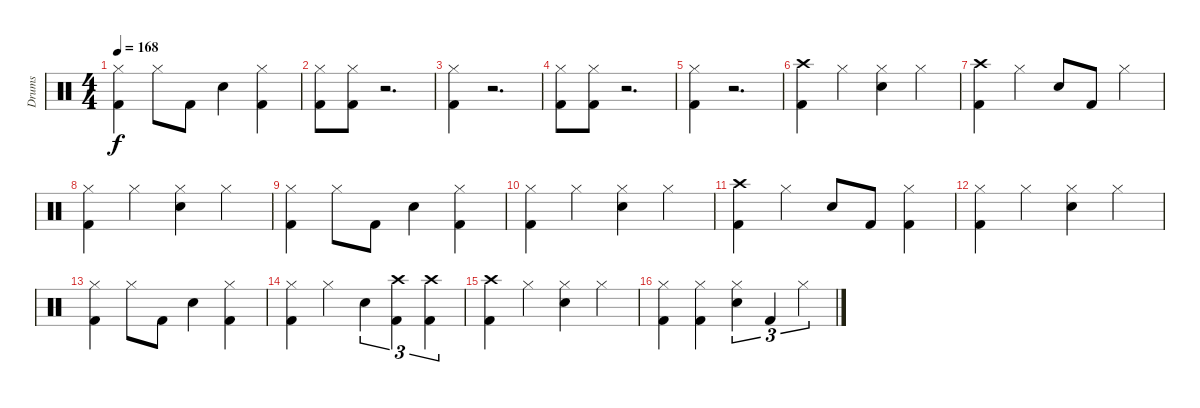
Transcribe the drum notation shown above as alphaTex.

\track ("Drums" "Drums") {instrument percussion}
\staff {score}
\articulation defaults
\ts (4 4)
\tempo 168
\clef neutral
\ks c
("Kick (hit) 2" "Hi-Hat (closed)").4{dy f} "Hi-Hat (closed)".8 "Kick (hit) 2".8 "Electric Snare (hit)".4 ("Hi-Hat (closed)" "Kick (hit) 2").4 |
("Kick (hit) 2" "Hi-Hat (closed)").8 ("Kick (hit) 2" "Hi-Hat (closed)").8 r.2{d} |
("Kick (hit) 2" "Hi-Hat (closed)").4 r.2{d} |
("Kick (hit) 2" "Hi-Hat (closed)").8 ("Kick (hit) 2" "Hi-Hat (closed)").8 r.2{d} |
("Kick (hit) 2" "Hi-Hat (closed)").4 r.2{d} |
("Kick (hit) 2" "Crash high (hit)").4 "Hi-Hat (closed)".4 ("Hi-Hat (closed)" "Electric Snare (hit)").4 "Hi-Hat (closed)".4 |
("Kick (hit) 2" "Crash high (hit)").4 "Hi-Hat (closed)".4 "Electric Snare (hit)".8 "Kick (hit) 2".8 "Hi-Hat (closed)".4 |
("Kick (hit) 2" "Hi-Hat (closed)").4 "Hi-Hat (closed)".4 ("Hi-Hat (closed)" "Electric Snare (hit)").4 "Hi-Hat (closed)".4 |
("Kick (hit) 2" "Hi-Hat (closed)").4 "Hi-Hat (closed)".8 "Kick (hit) 2".8 "Electric Snare (hit)".4 ("Hi-Hat (closed)" "Kick (hit) 2").4 |
("Kick (hit) 2" "Hi-Hat (closed)").4 "Hi-Hat (closed)".4 ("Hi-Hat (closed)" "Electric Snare (hit)").4 "Hi-Hat (closed)".4 |
("Kick (hit) 2" "Crash high (hit)").4 "Hi-Hat (closed)".4 "Electric Snare (hit)".8 "Kick (hit) 2".8 ("Hi-Hat (closed)" "Kick (hit) 2").4 |
("Kick (hit) 2" "Hi-Hat (closed)").4 "Hi-Hat (closed)".4 ("Hi-Hat (closed)" "Electric Snare (hit)").4 "Hi-Hat (closed)".4 |
("Kick (hit) 2" "Hi-Hat (closed)").4 "Hi-Hat (closed)".8 "Kick (hit) 2".8 "Electric Snare (hit)".4 ("Hi-Hat (closed)" "Kick (hit) 2").4 |
("Kick (hit) 2" "Hi-Hat (closed)").4 "Hi-Hat (closed)".4 "Electric Snare (hit)".4{tu (3 2)} ("Crash high (hit)" "Kick (hit) 2").4{tu (3 2)} ("Crash high (hit)" "Kick (hit) 2").4{tu (3 2)} |
("Kick (hit) 2" "Crash high (hit)").4 "Hi-Hat (closed)".4 ("Hi-Hat (closed)" "Electric Snare (hit)").4 "Hi-Hat (closed)".4 |
("Kick (hit) 2" "Hi-Hat (closed)").4 ("Kick (hit) 2" "Hi-Hat (closed)").4 ("Electric Snare (hit)" "Hi-Hat (closed)").4{tu (3 2)} "Kick (hit) 2".4{tu (3 2)} "Hi-Hat (closed)".4{tu (3 2)}
